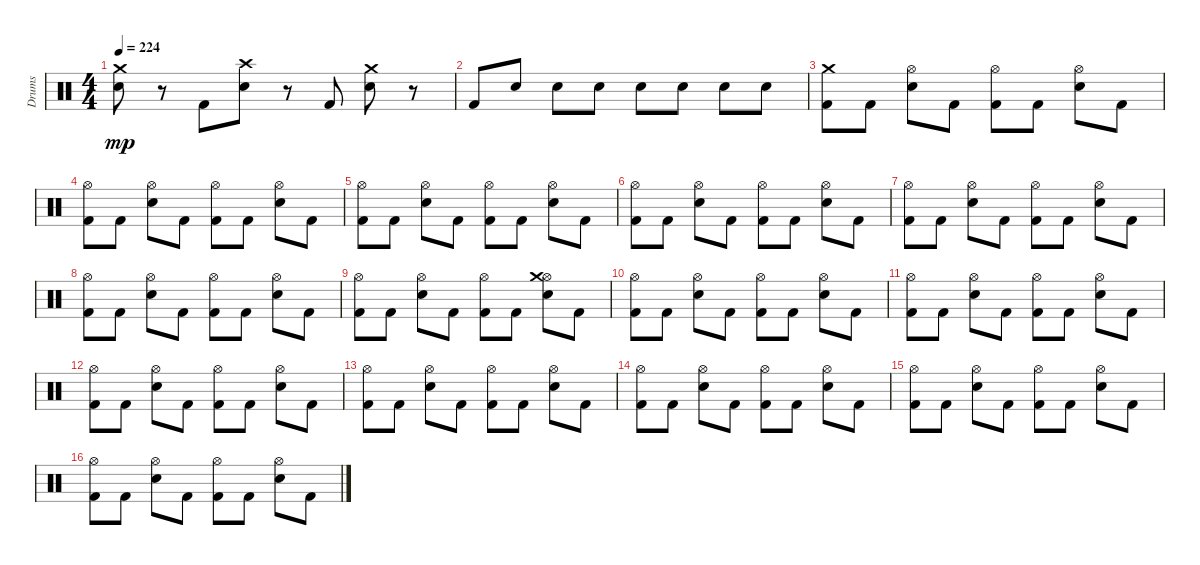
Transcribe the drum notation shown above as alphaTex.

\track ("Drums" "Drums") {instrument percussion}
\staff {score}
\articulation defaults
\ts (4 4)
\tempo 224
\clef neutral
\ks c
("Crash medium (hit)" "Electric Snare (hit)").8{dy mp} r.8 "Kick (hit) 2".8 ("Crash high (hit)" "Electric Snare (hit)").8 r.8 "Kick (hit) 2".8 ("Electric Snare (hit)" "Crash medium (hit)").8 r.8 |
"Kick (hit) 2".8 "Electric Snare (hit)".8 "Electric Snare (hit)".8 "Electric Snare (hit)".8 "Electric Snare (hit)".8 "Electric Snare (hit)".8 "Electric Snare (hit)".8 "Electric Snare (hit)".8 |
("Kick (hit) 2" "Crash medium (hit)").8 "Kick (hit) 2".8 ("Electric Snare (hit)" "Hi-Hat (open)").8 "Kick (hit) 2".8 ("Kick (hit) 2" "Hi-Hat (open)").8 "Kick (hit) 2".8 ("Electric Snare (hit)" "Hi-Hat (open)").8 "Kick (hit) 2".8 |
("Kick (hit) 2" "Hi-Hat (open)").8 "Kick (hit) 2".8 ("Hi-Hat (open)" "Electric Snare (hit)").8 "Kick (hit) 2".8 ("Hi-Hat (open)" "Kick (hit) 2").8 "Kick (hit) 2".8 ("Electric Snare (hit)" "Hi-Hat (open)").8 "Kick (hit) 2".8 |
("Kick (hit) 2" "Hi-Hat (open)").8 "Kick (hit) 2".8 ("Electric Snare (hit)" "Hi-Hat (open)").8 "Kick (hit) 2".8 ("Hi-Hat (open)" "Kick (hit) 2").8 "Kick (hit) 2".8 ("Hi-Hat (open)" "Electric Snare (hit)").8 "Kick (hit) 2".8 |
("Hi-Hat (open)" "Kick (hit) 2").8 "Kick (hit) 2".8 ("Electric Snare (hit)" "Hi-Hat (open)").8 "Kick (hit) 2".8 ("Hi-Hat (open)" "Kick (hit) 2").8 "Kick (hit) 2".8 ("Hi-Hat (open)" "Electric Snare (hit)").8 "Kick (hit) 2".8 |
("Kick (hit) 2" "Hi-Hat (open)").8 "Kick (hit) 2".8 ("Electric Snare (hit)" "Hi-Hat (open)").8 "Kick (hit) 2".8 ("Hi-Hat (open)" "Kick (hit) 2").8 "Kick (hit) 2".8 ("Electric Snare (hit)" "Hi-Hat (open)").8 "Kick (hit) 2".8 |
("Hi-Hat (open)" "Kick (hit) 2").8 "Kick (hit) 2".8 ("Electric Snare (hit)" "Hi-Hat (open)").8 "Kick (hit) 2".8 ("Hi-Hat (open)" "Kick (hit) 2").8 "Kick (hit) 2".8 ("Electric Snare (hit)" "Hi-Hat (open)").8 "Kick (hit) 2".8 |
("Kick (hit) 2" "Hi-Hat (open)").8 "Kick (hit) 2".8 ("Hi-Hat (open)" "Electric Snare (hit)").8 "Kick (hit) 2".8 ("Hi-Hat (open)" "Kick (hit) 2").8 "Kick (hit) 2".8 ("Hi-Hat (open)" "Electric Snare (hit)" "Crash medium (hit)").8 "Kick (hit) 2".8 |
("Hi-Hat (open)" "Kick (hit) 2").8 "Kick (hit) 2".8 ("Electric Snare (hit)" "Hi-Hat (open)").8 "Kick (hit) 2".8 ("Kick (hit) 2" "Hi-Hat (open)").8 "Kick (hit) 2".8 ("Hi-Hat (open)" "Electric Snare (hit)").8 "Kick (hit) 2".8 |
("Kick (hit) 2" "Hi-Hat (open)").8 "Kick (hit) 2".8 ("Electric Snare (hit)" "Hi-Hat (open)").8 "Kick (hit) 2".8 ("Hi-Hat (open)" "Kick (hit) 2").8 "Kick (hit) 2".8 ("Hi-Hat (open)" "Electric Snare (hit)").8 "Kick (hit) 2".8 |
("Kick (hit) 2" "Hi-Hat (open)").8 "Kick (hit) 2".8 ("Hi-Hat (open)" "Electric Snare (hit)").8 "Kick (hit) 2".8 ("Hi-Hat (open)" "Kick (hit) 2").8 "Kick (hit) 2".8 ("Hi-Hat (open)" "Electric Snare (hit)").8 "Kick (hit) 2".8 |
("Hi-Hat (open)" "Kick (hit) 2").8 "Kick (hit) 2".8 ("Hi-Hat (open)" "Electric Snare (hit)").8 "Kick (hit) 2".8 ("Hi-Hat (open)" "Kick (hit) 2").8 "Kick (hit) 2".8 ("Hi-Hat (open)" "Electric Snare (hit)").8 "Kick (hit) 2".8 |
("Hi-Hat (open)" "Kick (hit) 2").8 "Kick (hit) 2".8 ("Electric Snare (hit)" "Hi-Hat (open)").8 "Kick (hit) 2".8 ("Hi-Hat (open)" "Kick (hit) 2").8 "Kick (hit) 2".8 ("Hi-Hat (open)" "Electric Snare (hit)").8 "Kick (hit) 2".8 |
("Hi-Hat (open)" "Kick (hit) 2").8 "Kick (hit) 2".8 ("Hi-Hat (open)" "Electric Snare (hit)").8 "Kick (hit) 2".8 ("Hi-Hat (open)" "Kick (hit) 2").8 "Kick (hit) 2".8 ("Electric Snare (hit)" "Hi-Hat (open)").8 "Kick (hit) 2".8 |
("Hi-Hat (open)" "Kick (hit) 2").8 "Kick (hit) 2".8 ("Hi-Hat (open)" "Electric Snare (hit)").8 "Kick (hit) 2".8 ("Kick (hit) 2" "Hi-Hat (open)").8 "Kick (hit) 2".8 ("Hi-Hat (open)" "Electric Snare (hit)").8 "Kick (hit) 2".8
